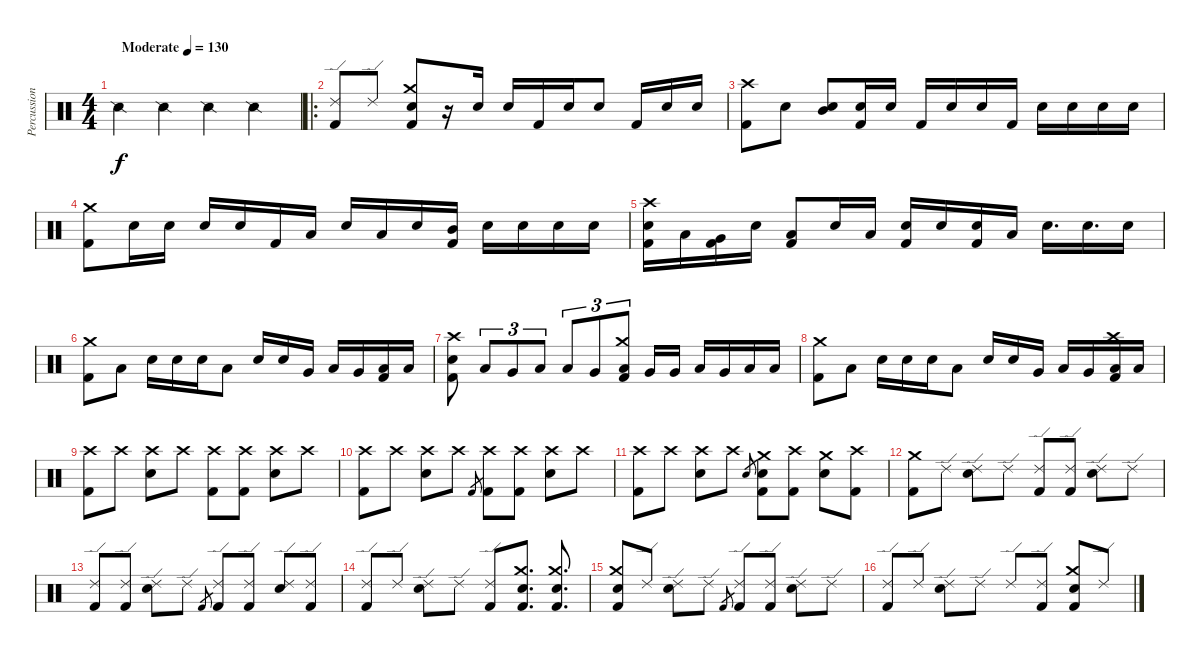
\track ("Percussion" "Percussion") {instrument percussion}
\staff {score}
\articulation defaults
\ts (4 4)
\tempo (130 "Moderate")
\clef neutral
\ks c "Snare (side stick) 2".4{dy f} "Snare (side stick) 2".4 "Snare (side stick) 2".4 "Snare (side stick) 2".4
|
\ro
("Ride (edge) 2" "Kick (hit) 2").8 "Ride (edge) 2".8 ("Crash medium (hit)" "Snare (hit) 2" "Kick (hit) 2").8 r.16 "Snare (hit) 2".16 "Snare (hit) 2".16 "Kick (hit) 2".16 "Snare (hit) 2".16 "Snare (hit) 2".8 "Kick (hit) 2".16 "Snare (hit) 2".16 "Snare (hit) 2".16 |
("Crash high (hit)" "Kick (hit) 2").8 "Snare (hit) 2".8 ("Mid Tom (hit)" "Snare (hit) 2").8 ("Snare (hit) 2" "Kick (hit) 2").16 "Snare (hit) 2".16 "Kick (hit) 2".16 "Snare (hit) 2".16 "Snare (hit) 2".16 "Kick (hit) 2".16 "Snare (hit) 2".16 "Snare (hit) 2".16 "Snare (hit) 2".16 "Snare (hit) 2".16 |
("Crash medium (hit)" "Kick (hit) 2").8 "Snare (hit) 2".16 "Snare (hit) 2".16 "Snare (hit) 2".16 "Snare (hit) 2".16 "Kick (hit) 2".16 "Low Tom (hit)".16 "Snare (hit) 2".16 "Low Tom (hit)".16 "Snare (hit) 2".16 ("Mid Tom (hit)" "Kick (hit) 2").16 "Snare (hit) 2".16 "Snare (hit) 2".16 "Snare (hit) 2".16 "Snare (hit) 2".16 |
("Crash high (hit)" "Snare (hit) 2" "Kick (hit) 2").16 "Low Tom (hit)".16 ("Very Low Tom (hit)" "Kick (hit) 2").16 "Snare (hit) 2".16 ("Low Floor Tom (hit)" "Kick (hit) 2").8 "Snare (hit) 2".16 "Low Tom (hit)".16 ("Snare (hit) 2" "Kick (hit) 2").16 "Snare (hit) 2".16 ("Snare (hit) 2" "Kick (hit) 2").16 "Low Tom (hit)".16 "Snare (hit) 2".16{d} "Snare (hit) 2".16{d} "Snare (hit) 2".16 |
("Crash medium (hit)" "Kick (hit) 2").8 "Low Floor Tom (hit)".8 "Electric Snare (hit)".16 "Electric Snare (hit)".16 "Electric Snare (hit)".16 "Low Floor Tom (hit)".8 "Electric Snare (hit)".16 "Electric Snare (hit)".16 "Very Low Tom (hit)".16 "Low Tom (hit)".16 "Very Low Tom (hit)".16 ("Low Floor Tom (hit)" "Kick (hit) 2").16 "Low Floor Tom (hit)".16 |
("Crash high (hit)" "Snare (hit) 2" "Kick (hit) 2").8 "Low Tom (hit)".8{tu (3 2)} "Very Low Tom (hit)".8{tu (3 2)} "Low Tom (hit)".8{tu (3 2)} "Low Tom (hit)".8{tu (3 2)} "Very Low Tom (hit)".8{tu (3 2)} ("Crash medium (hit)" "Low Tom (hit)" "Kick (hit) 2").8{tu (3 2)} "Very Low Tom (hit)".16 "Very Low Tom (hit)".16 "Low Tom (hit)".16 "Very Low Tom (hit)".16 "Low Floor Tom (hit)".16 "Low Floor Tom (hit)".16 |
("Crash medium (hit)" "Kick (hit) 2").8 "Low Floor Tom (hit)".8 "Electric Snare (hit)".16 "Electric Snare (hit)".16 "Electric Snare (hit)".16 "Low Floor Tom (hit)".8 "Electric Snare (hit)".16 "Electric Snare (hit)".16 "Very Low Tom (hit)".16 "Low Tom (hit)".16 "Very Low Tom (hit)".16 ("Crash high (hit)" "Low Floor Tom (hit)" "Kick (hit) 2").16 "Low Floor Tom (hit)".16 |
("Crash high (hit)" "Kick (hit) 2").8 "Crash high (hit)".8 ("Crash high (hit)" "Snare (hit) 2").8 "Crash high (hit)".8 ("Crash high (hit)" "Kick (hit) 2").8 ("Crash high (hit)" "Kick (hit) 2").8 ("Crash high (hit)" "Snare (hit) 2").8 "Crash high (hit)".8 |
("Crash high (hit)" "Kick (hit) 2").8 "Crash high (hit)".8 ("Crash high (hit)" "Snare (hit) 2").8 "Crash high (hit)".8 "Kick (hit) 2".8{gr} ("Crash high (hit)" "Kick (hit) 2").8 ("Crash high (hit)" "Kick (hit) 2").8 ("Crash high (hit)" "Snare (hit) 2").8 "Crash high (hit)".8 |
("Crash high (hit)" "Kick (hit) 2").8 "Crash high (hit)".8 ("Crash high (hit)" "Snare (hit) 2").8 "Crash high (hit)".8 "Snare (hit) 2".8{gr} ("Crash medium (hit)" "Snare (hit) 2" "Kick (hit) 2").8 ("Crash high (hit)" "Kick (hit) 2").8 ("Crash medium (hit)" "Snare (hit) 2").8 ("Crash high (hit)" "Kick (hit) 2").8 |
("Crash medium (hit)" "Kick (hit) 2").8 "Ride (edge) 2".8 ("Ride (edge) 2" "Snare (hit) 2").8 "Ride (edge) 2".8 ("Ride (edge) 2" "Kick (hit) 2").8 ("Ride (edge) 2" "Kick (hit) 2").8 ("Ride (edge) 2" "Snare (hit) 2").8 "Ride (edge) 2".8 |
("Ride (edge) 2" "Kick (hit) 2").8 ("Ride (edge) 2" "Kick (hit) 2").8 ("Ride (edge) 2" "Snare (hit) 2").8 "Ride (edge) 2".8 "Kick (hit) 2".8{gr} ("Ride (edge) 2" "Kick (hit) 2").8 ("Ride (edge) 2" "Kick (hit) 2").8 ("Ride (edge) 2" "Snare (hit) 2").8 ("Ride (edge) 2" "Kick (hit) 2").8 |
("Ride (edge) 2" "Kick (hit) 2").8 "Ride (edge) 2".8 ("Ride (edge) 2" "Snare (hit) 2").8 "Ride (edge) 2".8 ("Ride (edge) 2" "Kick (hit) 2").8 ("Crash medium (hit)" "Snare (hit) 2" "Kick (hit) 2").8{d} ("Crash medium (hit)" "Snare (hit) 2" "Kick (hit) 2").8{d} |
("Crash medium (hit)" "Snare (hit) 2" "Kick (hit) 2").8 "Ride (edge) 2".8 ("Ride (edge) 2" "Snare (hit) 2").8 "Ride (edge) 2".8 "Kick (hit) 2".8{gr} ("Ride (edge) 2" "Kick (hit) 2").8 ("Ride (edge) 2" "Kick (hit) 2").8 ("Ride (edge) 2" "Snare (hit) 2").8 "Ride (edge) 2".8 |
("Ride (edge) 2" "Kick (hit) 2").8 "Ride (edge) 2".8 ("Ride (edge) 2" "Snare (hit) 2").8 "Ride (edge) 2".8 "Ride (edge) 2".8 ("Ride (edge) 2" "Kick (hit) 2").8 ("Crash medium (hit)" "Snare (hit) 2" "Kick (hit) 2").8 "Ride (edge) 2".8
